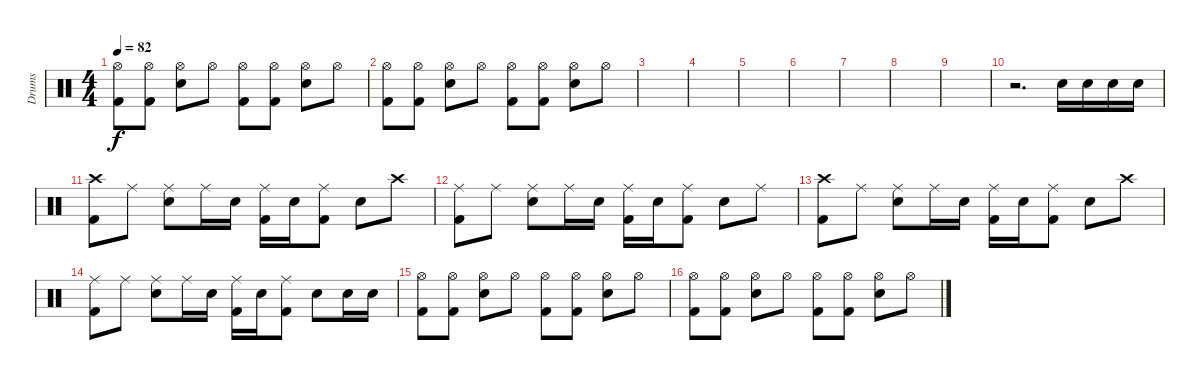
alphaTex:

\track ("Drums" "Drums") {instrument percussion}
\staff {score}
\articulation defaults
\ts (4 4)
\tempo 82
\clef neutral
\ks c
("Hi-Hat (open)" "Kick (hit) 2").8{dy f} ("Hi-Hat (open)" "Kick (hit) 2").8 ("Hi-Hat (open)" "Electric Snare (hit)").8 "Hi-Hat (open)".8 ("Hi-Hat (open)" "Kick (hit) 2").8 ("Hi-Hat (open)" "Kick (hit) 2").8 ("Hi-Hat (open)" "Electric Snare (hit)").8 "Hi-Hat (open)".8 |
("Hi-Hat (open)" "Kick (hit) 2").8 ("Hi-Hat (open)" "Kick (hit) 2").8 ("Hi-Hat (open)" "Electric Snare (hit)").8 "Hi-Hat (open)".8 ("Hi-Hat (open)" "Kick (hit) 2").8 ("Hi-Hat (open)" "Kick (hit) 2").8 ("Hi-Hat (open)" "Electric Snare (hit)").8 "Hi-Hat (open)".8 |
|
|
|
|
|
|
|
r.2{d} "Electric Snare (hit)".16 "Electric Snare (hit)".16 "Electric Snare (hit)".16 "Electric Snare (hit)".16 |
("Crash high (hit)" "Kick (hit) 2").8 "Ride (middle)".8 ("Ride (middle)" "Electric Snare (hit)").8 "Ride (middle)".16 "Electric Snare (hit)".16 ("Ride (middle)" "Kick (hit) 2").16 "Electric Snare (hit)".16 ("Ride (middle)" "Kick (hit) 2").8 "Electric Snare (hit)".8 "Crash high (hit)".8 |
("Ride (middle)" "Kick (hit) 2").8 "Ride (middle)".8 ("Ride (middle)" "Electric Snare (hit)").8 "Ride (middle)".16 "Electric Snare (hit)".16 ("Ride (middle)" "Kick (hit) 2").16 "Electric Snare (hit)".16 ("Ride (middle)" "Kick (hit) 2").8 "Electric Snare (hit)".8 "Ride (middle)".8 |
("Crash high (hit)" "Kick (hit) 2").8 "Ride (middle)".8 ("Ride (middle)" "Electric Snare (hit)").8 "Ride (middle)".16 "Electric Snare (hit)".16 ("Ride (middle)" "Kick (hit) 2").16 "Electric Snare (hit)".16 ("Ride (middle)" "Kick (hit) 2").8 "Electric Snare (hit)".8 "Crash high (hit)".8 |
("Ride (middle)" "Kick (hit) 2").8 "Ride (middle)".8 ("Ride (middle)" "Electric Snare (hit)").8 "Ride (middle)".16 "Electric Snare (hit)".16 ("Ride (middle)" "Kick (hit) 2").16 "Electric Snare (hit)".16 ("Ride (middle)" "Kick (hit) 2").8 "Electric Snare (hit)".8 "Electric Snare (hit)".16 "Electric Snare (hit)".16 |
("Hi-Hat (open)" "Kick (hit) 2").8 ("Hi-Hat (open)" "Kick (hit) 2").8 ("Hi-Hat (open)" "Electric Snare (hit)").8 "Hi-Hat (open)".8 ("Hi-Hat (open)" "Kick (hit) 2").8 ("Hi-Hat (open)" "Kick (hit) 2").8 ("Hi-Hat (open)" "Electric Snare (hit)").8 "Hi-Hat (open)".8 |
("Hi-Hat (open)" "Kick (hit) 2").8 ("Hi-Hat (open)" "Kick (hit) 2").8 ("Hi-Hat (open)" "Electric Snare (hit)").8 "Hi-Hat (open)".8 ("Hi-Hat (open)" "Kick (hit) 2").8 ("Hi-Hat (open)" "Kick (hit) 2").8 ("Hi-Hat (open)" "Electric Snare (hit)").8 "Hi-Hat (open)".8
